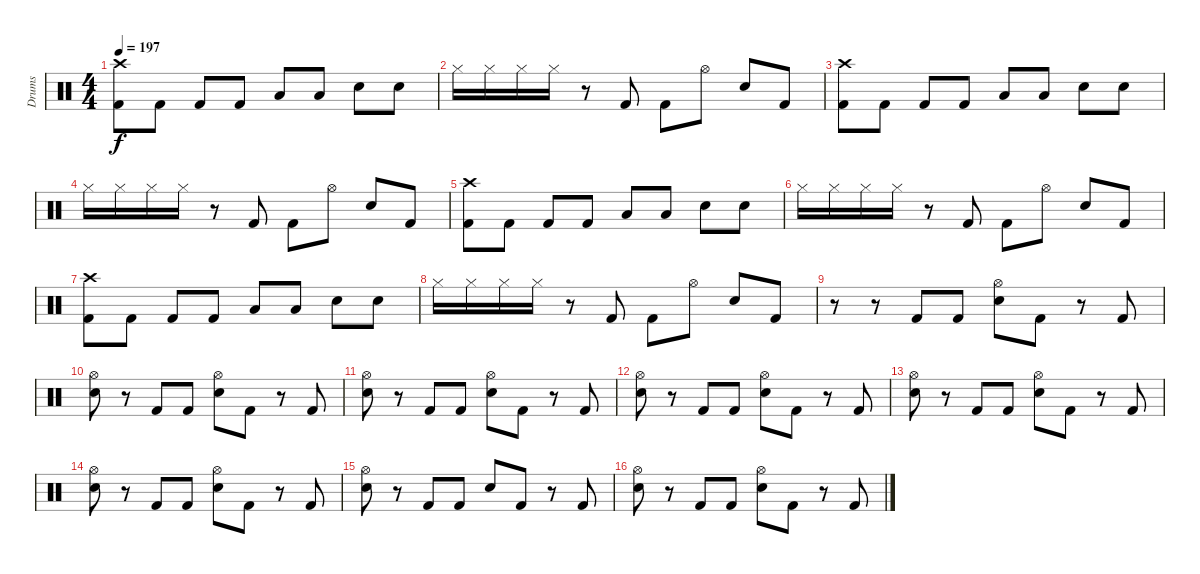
\track ("Drums" "Drums") {instrument percussion}
\staff {score}
\articulation defaults
\ts (4 4)
\tempo 197
\clef neutral
\ks c
("Crash high (hit)" "Kick (hit) 2").8{dy f} "Kick (hit) 2".8 "Kick (hit) 2".8 "Kick (hit) 2".8 "Low Tom (hit)".8 "Low Tom (hit)".8 "Electric Snare (hit)".8 "Electric Snare (hit)".8 |
"Hi-Hat (closed)".16 "Hi-Hat (closed)".16 "Hi-Hat (closed)".16 "Hi-Hat (closed)".16 r.8 "Kick (hit) 2".8 "Kick (hit) 2".8 "Hi-Hat (open)".8 "Electric Snare (hit)".8 "Kick (hit) 2".8 |
("Crash high (hit)" "Kick (hit) 2").8 "Kick (hit) 2".8 "Kick (hit) 2".8 "Kick (hit) 2".8 "Low Tom (hit)".8 "Low Tom (hit)".8 "Electric Snare (hit)".8 "Electric Snare (hit)".8 |
"Hi-Hat (closed)".16 "Hi-Hat (closed)".16 "Hi-Hat (closed)".16 "Hi-Hat (closed)".16 r.8 "Kick (hit) 2".8 "Kick (hit) 2".8 "Hi-Hat (open)".8 "Electric Snare (hit)".8 "Kick (hit) 2".8 |
("Crash high (hit)" "Kick (hit) 2").8 "Kick (hit) 2".8 "Kick (hit) 2".8 "Kick (hit) 2".8 "Low Tom (hit)".8 "Low Tom (hit)".8 "Electric Snare (hit)".8 "Electric Snare (hit)".8 |
"Hi-Hat (closed)".16 "Hi-Hat (closed)".16 "Hi-Hat (closed)".16 "Hi-Hat (closed)".16 r.8 "Kick (hit) 2".8 "Kick (hit) 2".8 "Hi-Hat (open)".8 "Electric Snare (hit)".8 "Kick (hit) 2".8 |
("Crash high (hit)" "Kick (hit) 2").8 "Kick (hit) 2".8 "Kick (hit) 2".8 "Kick (hit) 2".8 "Low Tom (hit)".8 "Low Tom (hit)".8 "Electric Snare (hit)".8 "Electric Snare (hit)".8 |
"Hi-Hat (closed)".16 "Hi-Hat (closed)".16 "Hi-Hat (closed)".16 "Hi-Hat (closed)".16 r.8 "Kick (hit) 2".8 "Kick (hit) 2".8 "Hi-Hat (open)".8 "Electric Snare (hit)".8 "Kick (hit) 2".8 |
r.8 r.8 "Kick (hit) 2".8 "Kick (hit) 2".8 ("Hi-Hat (open)" "Electric Snare (hit)").8 "Kick (hit) 2".8 r.8 "Kick (hit) 2".8 |
("Hi-Hat (open)" "Electric Snare (hit)").8 r.8 "Kick (hit) 2".8 "Kick (hit) 2".8 ("Hi-Hat (open)" "Electric Snare (hit)").8 "Kick (hit) 2".8 r.8 "Kick (hit) 2".8 |
("Hi-Hat (open)" "Electric Snare (hit)").8 r.8 "Kick (hit) 2".8 "Kick (hit) 2".8 ("Hi-Hat (open)" "Electric Snare (hit)").8 "Kick (hit) 2".8 r.8 "Kick (hit) 2".8 |
("Hi-Hat (open)" "Electric Snare (hit)").8 r.8 "Kick (hit) 2".8 "Kick (hit) 2".8 ("Hi-Hat (open)" "Electric Snare (hit)").8 "Kick (hit) 2".8 r.8 "Kick (hit) 2".8 |
("Hi-Hat (open)" "Electric Snare (hit)").8 r.8 "Kick (hit) 2".8 "Kick (hit) 2".8 ("Hi-Hat (open)" "Electric Snare (hit)").8 "Kick (hit) 2".8 r.8 "Kick (hit) 2".8 |
("Hi-Hat (open)" "Electric Snare (hit)").8 r.8 "Kick (hit) 2".8 "Kick (hit) 2".8 ("Hi-Hat (open)" "Electric Snare (hit)").8 "Kick (hit) 2".8 r.8 "Kick (hit) 2".8 |
("Hi-Hat (open)" "Electric Snare (hit)").8 r.8 "Kick (hit) 2".8 "Kick (hit) 2".8 "Electric Snare (hit)".8 "Kick (hit) 2".8 r.8 "Kick (hit) 2".8 |
("Hi-Hat (open)" "Electric Snare (hit)").8 r.8 "Kick (hit) 2".8 "Kick (hit) 2".8 ("Hi-Hat (open)" "Electric Snare (hit)").8 "Kick (hit) 2".8 r.8 "Kick (hit) 2".8
